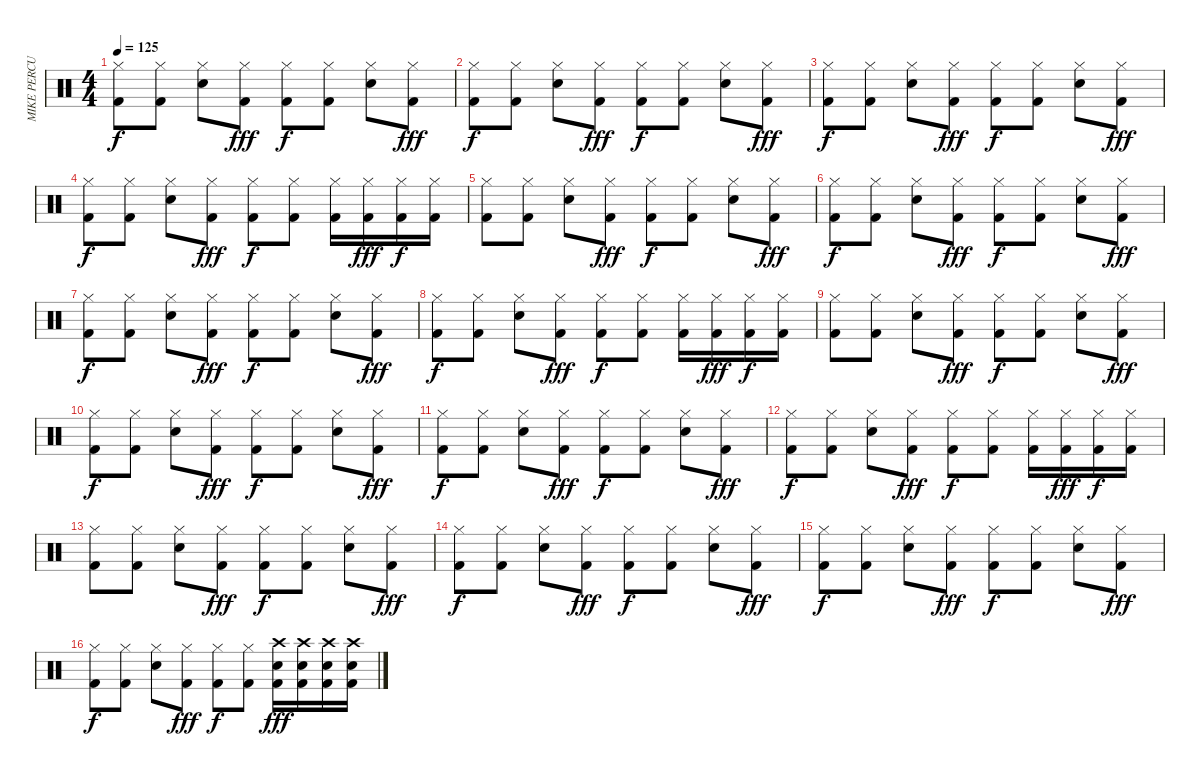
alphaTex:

\track ("MIKE PERCUSSIONS" "MIKE PERCU") {instrument percussion}
\staff {score}
\articulation defaults
\ts (4 4)
\tempo 125
\clef neutral
\ks c
("Hi-Hat (closed)" "Kick (hit) 2").8{dy f} ("Hi-Hat (closed)" "Kick (hit) 2").8 ("Hi-Hat (closed)" "Electric Snare (hit)").8 ("Hi-Hat (closed)" "Kick (hit) 2").8{dy fff} ("Hi-Hat (closed)" "Kick (hit) 2").8{dy f} ("Hi-Hat (closed)" "Kick (hit) 2").8 ("Hi-Hat (closed)" "Electric Snare (hit)").8 ("Hi-Hat (closed)" "Kick (hit) 2").8{dy fff} |
("Hi-Hat (closed)" "Kick (hit) 2").8{dy f} ("Hi-Hat (closed)" "Kick (hit) 2").8 ("Hi-Hat (closed)" "Electric Snare (hit)").8 ("Hi-Hat (closed)" "Kick (hit) 2").8{dy fff} ("Hi-Hat (closed)" "Kick (hit) 2").8{dy f} ("Hi-Hat (closed)" "Kick (hit) 2").8 ("Hi-Hat (closed)" "Electric Snare (hit)").8 ("Hi-Hat (closed)" "Kick (hit) 2").8{dy fff} |
("Hi-Hat (closed)" "Kick (hit) 2").8{dy f} ("Hi-Hat (closed)" "Kick (hit) 2").8 ("Hi-Hat (closed)" "Electric Snare (hit)").8 ("Hi-Hat (closed)" "Kick (hit) 2").8{dy fff} ("Hi-Hat (closed)" "Kick (hit) 2").8{dy f} ("Hi-Hat (closed)" "Kick (hit) 2").8 ("Hi-Hat (closed)" "Electric Snare (hit)").8 ("Hi-Hat (closed)" "Kick (hit) 2").8{dy fff} |
("Hi-Hat (closed)" "Kick (hit) 2").8{dy f} ("Hi-Hat (closed)" "Kick (hit) 2").8 ("Hi-Hat (closed)" "Electric Snare (hit)").8 ("Hi-Hat (closed)" "Kick (hit) 2").8{dy fff} ("Hi-Hat (closed)" "Kick (hit) 2").8{dy f} ("Hi-Hat (closed)" "Kick (hit) 2").8 ("Hi-Hat (closed)" "Kick (hit) 2").16 ("Hi-Hat (closed)" "Kick (hit) 2").16{dy fff} ("Hi-Hat (closed)" "Kick (hit) 2").16{dy f} ("Hi-Hat (closed)" "Kick (hit) 2").16 |
("Hi-Hat (closed)" "Kick (hit) 2").8 ("Hi-Hat (closed)" "Kick (hit) 2").8 ("Hi-Hat (closed)" "Electric Snare (hit)").8 ("Hi-Hat (closed)" "Kick (hit) 2").8{dy fff} ("Hi-Hat (closed)" "Kick (hit) 2").8{dy f} ("Hi-Hat (closed)" "Kick (hit) 2").8 ("Hi-Hat (closed)" "Electric Snare (hit)").8 ("Hi-Hat (closed)" "Kick (hit) 2").8{dy fff} |
("Hi-Hat (closed)" "Kick (hit) 2").8{dy f} ("Hi-Hat (closed)" "Kick (hit) 2").8 ("Hi-Hat (closed)" "Electric Snare (hit)").8 ("Hi-Hat (closed)" "Kick (hit) 2").8{dy fff} ("Hi-Hat (closed)" "Kick (hit) 2").8{dy f} ("Hi-Hat (closed)" "Kick (hit) 2").8 ("Hi-Hat (closed)" "Electric Snare (hit)").8 ("Hi-Hat (closed)" "Kick (hit) 2").8{dy fff} |
("Hi-Hat (closed)" "Kick (hit) 2").8{dy f} ("Hi-Hat (closed)" "Kick (hit) 2").8 ("Hi-Hat (closed)" "Electric Snare (hit)").8 ("Hi-Hat (closed)" "Kick (hit) 2").8{dy fff} ("Hi-Hat (closed)" "Kick (hit) 2").8{dy f} ("Hi-Hat (closed)" "Kick (hit) 2").8 ("Hi-Hat (closed)" "Electric Snare (hit)").8 ("Hi-Hat (closed)" "Kick (hit) 2").8{dy fff} |
("Hi-Hat (closed)" "Kick (hit) 2").8{dy f} ("Hi-Hat (closed)" "Kick (hit) 2").8 ("Hi-Hat (closed)" "Electric Snare (hit)").8 ("Hi-Hat (closed)" "Kick (hit) 2").8{dy fff} ("Hi-Hat (closed)" "Kick (hit) 2").8{dy f} ("Hi-Hat (closed)" "Kick (hit) 2").8 ("Hi-Hat (closed)" "Kick (hit) 2").16 ("Hi-Hat (closed)" "Kick (hit) 2").16{dy fff} ("Hi-Hat (closed)" "Kick (hit) 2").16{dy f} ("Hi-Hat (closed)" "Kick (hit) 2").16 |
("Hi-Hat (closed)" "Kick (hit) 2").8 ("Hi-Hat (closed)" "Kick (hit) 2").8 ("Hi-Hat (closed)" "Electric Snare (hit)").8 ("Hi-Hat (closed)" "Kick (hit) 2").8{dy fff} ("Hi-Hat (closed)" "Kick (hit) 2").8{dy f} ("Hi-Hat (closed)" "Kick (hit) 2").8 ("Hi-Hat (closed)" "Electric Snare (hit)").8 ("Hi-Hat (closed)" "Kick (hit) 2").8{dy fff} |
("Hi-Hat (closed)" "Kick (hit) 2").8{dy f} ("Hi-Hat (closed)" "Kick (hit) 2").8 ("Hi-Hat (closed)" "Electric Snare (hit)").8 ("Hi-Hat (closed)" "Kick (hit) 2").8{dy fff} ("Hi-Hat (closed)" "Kick (hit) 2").8{dy f} ("Hi-Hat (closed)" "Kick (hit) 2").8 ("Hi-Hat (closed)" "Electric Snare (hit)").8 ("Hi-Hat (closed)" "Kick (hit) 2").8{dy fff} |
("Hi-Hat (closed)" "Kick (hit) 2").8{dy f} ("Hi-Hat (closed)" "Kick (hit) 2").8 ("Hi-Hat (closed)" "Electric Snare (hit)").8 ("Hi-Hat (closed)" "Kick (hit) 2").8{dy fff} ("Hi-Hat (closed)" "Kick (hit) 2").8{dy f} ("Hi-Hat (closed)" "Kick (hit) 2").8 ("Hi-Hat (closed)" "Electric Snare (hit)").8 ("Hi-Hat (closed)" "Kick (hit) 2").8{dy fff} |
("Hi-Hat (closed)" "Kick (hit) 2").8{dy f} ("Hi-Hat (closed)" "Kick (hit) 2").8 ("Hi-Hat (closed)" "Electric Snare (hit)").8 ("Hi-Hat (closed)" "Kick (hit) 2").8{dy fff} ("Hi-Hat (closed)" "Kick (hit) 2").8{dy f} ("Hi-Hat (closed)" "Kick (hit) 2").8 ("Hi-Hat (closed)" "Kick (hit) 2").16 ("Hi-Hat (closed)" "Kick (hit) 2").16{dy fff} ("Hi-Hat (closed)" "Kick (hit) 2").16{dy f} ("Hi-Hat (closed)" "Kick (hit) 2").16 |
("Hi-Hat (closed)" "Kick (hit) 2").8 ("Hi-Hat (closed)" "Kick (hit) 2").8 ("Hi-Hat (closed)" "Electric Snare (hit)").8 ("Hi-Hat (closed)" "Kick (hit) 2").8{dy fff} ("Hi-Hat (closed)" "Kick (hit) 2").8{dy f} ("Hi-Hat (closed)" "Kick (hit) 2").8 ("Hi-Hat (closed)" "Electric Snare (hit)").8 ("Hi-Hat (closed)" "Kick (hit) 2").8{dy fff} |
("Hi-Hat (closed)" "Kick (hit) 2").8{dy f} ("Hi-Hat (closed)" "Kick (hit) 2").8 ("Hi-Hat (closed)" "Electric Snare (hit)").8 ("Hi-Hat (closed)" "Kick (hit) 2").8{dy fff} ("Hi-Hat (closed)" "Kick (hit) 2").8{dy f} ("Hi-Hat (closed)" "Kick (hit) 2").8 ("Hi-Hat (closed)" "Electric Snare (hit)").8 ("Hi-Hat (closed)" "Kick (hit) 2").8{dy fff} |
("Hi-Hat (closed)" "Kick (hit) 2").8{dy f} ("Hi-Hat (closed)" "Kick (hit) 2").8 ("Hi-Hat (closed)" "Electric Snare (hit)").8 ("Hi-Hat (closed)" "Kick (hit) 2").8{dy fff} ("Hi-Hat (closed)" "Kick (hit) 2").8{dy f} ("Hi-Hat (closed)" "Kick (hit) 2").8 ("Hi-Hat (closed)" "Electric Snare (hit)").8 ("Hi-Hat (closed)" "Kick (hit) 2").8{dy fff} |
("Hi-Hat (closed)" "Kick (hit) 2").8{dy f} ("Hi-Hat (closed)" "Kick (hit) 2").8 ("Hi-Hat (closed)" "Electric Snare (hit)").8 ("Hi-Hat (closed)" "Kick (hit) 2").8{dy fff} ("Hi-Hat (closed)" "Kick (hit) 2").8{dy f} ("Hi-Hat (closed)" "Kick (hit) 2").8 ("Electric Snare (hit)" "Crash high (hit)" "Kick (hit) 2").16{dy fff} ("Electric Snare (hit)" "Crash high (hit)" "Kick (hit) 2").16 ("Electric Snare (hit)" "Crash high (hit)" "Kick (hit) 2").16 ("Electric Snare (hit)" "Crash high (hit)" "Kick (hit) 2").16
